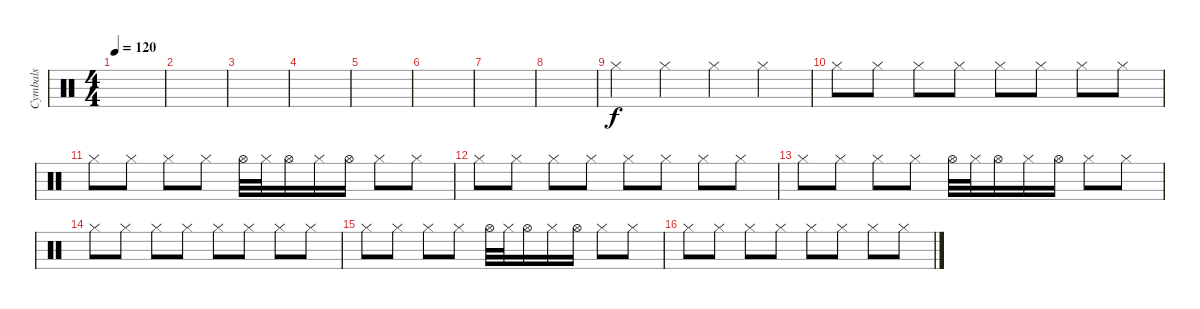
\track ("Cymbals" "Cymbals") {instrument percussion}
\staff {score}
\articulation defaults
\ts (4 4)
\tempo 120
\clef neutral
\ks c
|
|
|
|
|
|
|
|
"Hi-Hat (closed)".4 "Hi-Hat (closed)".4 "Hi-Hat (closed)".4 "Hi-Hat (closed)".4 |
"Hi-Hat (closed)".8 "Hi-Hat (closed)".8 "Hi-Hat (closed)".8 "Hi-Hat (closed)".8 "Hi-Hat (closed)".8 "Hi-Hat (closed)".8 "Hi-Hat (closed)".8 "Hi-Hat (closed)".8 |
"Hi-Hat (closed)".8 "Hi-Hat (closed)".8 "Hi-Hat (closed)".8 "Hi-Hat (closed)".8 "Hi-Hat (open)".32 "Hi-Hat (closed)".32 "Hi-Hat (open)".16 "Hi-Hat (closed)".16 "Hi-Hat (open)".16 "Hi-Hat (closed)".8 "Hi-Hat (closed)".8 |
"Hi-Hat (closed)".8 "Hi-Hat (closed)".8 "Hi-Hat (closed)".8 "Hi-Hat (closed)".8 "Hi-Hat (closed)".8 "Hi-Hat (closed)".8 "Hi-Hat (closed)".8 "Hi-Hat (closed)".8 |
"Hi-Hat (closed)".8 "Hi-Hat (closed)".8 "Hi-Hat (closed)".8 "Hi-Hat (closed)".8 "Hi-Hat (open)".32 "Hi-Hat (closed)".32 "Hi-Hat (open)".16 "Hi-Hat (closed)".16 "Hi-Hat (open)".16 "Hi-Hat (closed)".8 "Hi-Hat (closed)".8 |
"Hi-Hat (closed)".8 "Hi-Hat (closed)".8 "Hi-Hat (closed)".8 "Hi-Hat (closed)".8 "Hi-Hat (closed)".8 "Hi-Hat (closed)".8 "Hi-Hat (closed)".8 "Hi-Hat (closed)".8 |
"Hi-Hat (closed)".8 "Hi-Hat (closed)".8 "Hi-Hat (closed)".8 "Hi-Hat (closed)".8 "Hi-Hat (open)".32 "Hi-Hat (closed)".32 "Hi-Hat (open)".16 "Hi-Hat (closed)".16 "Hi-Hat (open)".16 "Hi-Hat (closed)".8 "Hi-Hat (closed)".8 |
"Hi-Hat (closed)".8 "Hi-Hat (closed)".8 "Hi-Hat (closed)".8 "Hi-Hat (closed)".8 "Hi-Hat (closed)".8 "Hi-Hat (closed)".8 "Hi-Hat (closed)".8 "Hi-Hat (closed)".8
